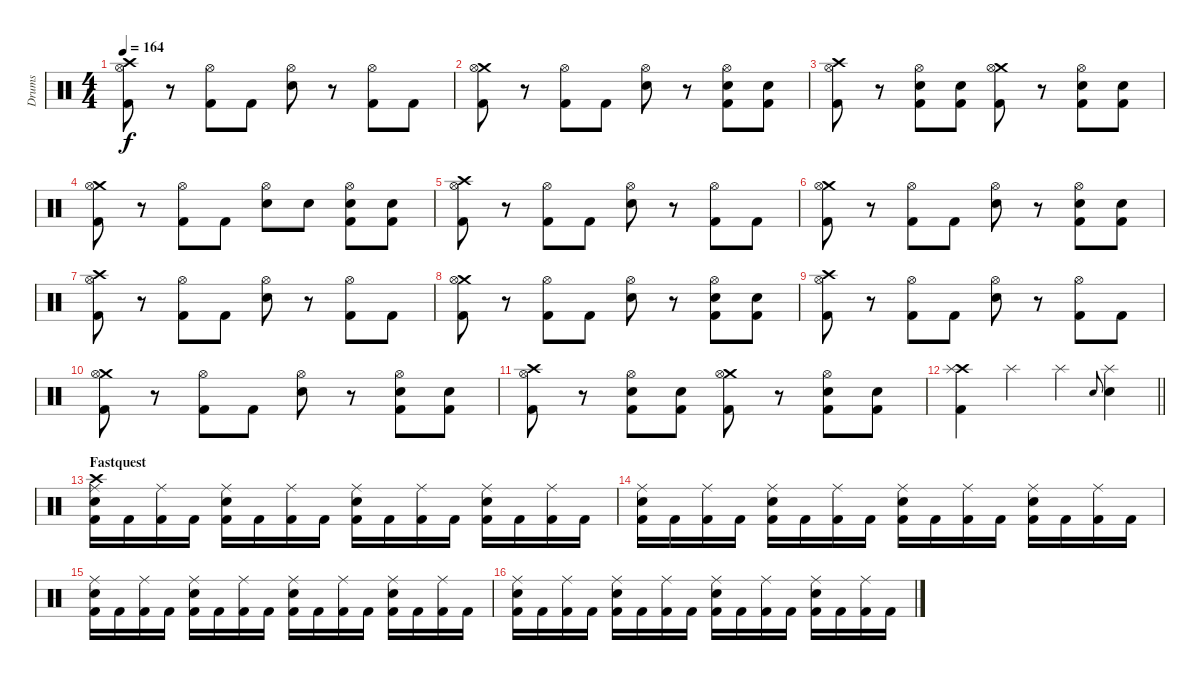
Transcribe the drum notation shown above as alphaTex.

\track ("Drums" "Drums") {instrument percussion}
\staff {score}
\articulation defaults
\ts (4 4)
\tempo 164
\clef neutral
\ks c
("Crash high (hit)" "Hi-Hat (open)" "Kick (hit) 2").8{dy f} r.8 ("Hi-Hat (open)" "Kick (hit) 2").8 "Kick (hit) 2".8 ("Hi-Hat (open)" "Snare (hit) 2").8 r.8 ("Hi-Hat (open)" "Kick (hit) 2").8 "Kick (hit) 2".8 |
("Crash medium (hit)" "Hi-Hat (open)" "Kick (hit) 2").8 r.8 ("Hi-Hat (open)" "Kick (hit) 2").8 "Kick (hit) 2".8 ("Hi-Hat (open)" "Snare (hit) 2").8 r.8 ("Hi-Hat (open)" "Snare (hit) 2" "Kick (hit) 2").8 ("Snare (hit) 2" "Kick (hit) 2").8 |
("Crash high (hit)" "Hi-Hat (open)" "Kick (hit) 2").8 r.8 ("Hi-Hat (open)" "Snare (hit) 2" "Kick (hit) 2").8 ("Snare (hit) 2" "Kick (hit) 2").8 ("Crash medium (hit)" "Hi-Hat (open)" "Kick (hit) 2").8 r.8 ("Hi-Hat (open)" "Snare (hit) 2" "Kick (hit) 2").8 ("Snare (hit) 2" "Kick (hit) 2").8 |
("Crash medium (hit)" "Hi-Hat (open)" "Kick (hit) 2").8 r.8 ("Hi-Hat (open)" "Kick (hit) 2").8 "Kick (hit) 2".8 ("Hi-Hat (open)" "Snare (hit) 2").8 "Snare (hit) 2".8 ("Hi-Hat (open)" "Snare (hit) 2" "Kick (hit) 2").8 ("Snare (hit) 2" "Kick (hit) 2").8 |
("Crash high (hit)" "Hi-Hat (open)" "Kick (hit) 2").8 r.8 ("Hi-Hat (open)" "Kick (hit) 2").8 "Kick (hit) 2".8 ("Hi-Hat (open)" "Snare (hit) 2").8 r.8 ("Hi-Hat (open)" "Kick (hit) 2").8 "Kick (hit) 2".8 |
("Crash medium (hit)" "Hi-Hat (open)" "Kick (hit) 2").8 r.8 ("Hi-Hat (open)" "Kick (hit) 2").8 "Kick (hit) 2".8 ("Hi-Hat (open)" "Snare (hit) 2").8 r.8 ("Hi-Hat (open)" "Snare (hit) 2" "Kick (hit) 2").8 ("Snare (hit) 2" "Kick (hit) 2").8 |
("Crash high (hit)" "Hi-Hat (open)" "Kick (hit) 2").8 r.8 ("Hi-Hat (open)" "Kick (hit) 2").8 "Kick (hit) 2".8 ("Hi-Hat (open)" "Snare (hit) 2").8 r.8 ("Hi-Hat (open)" "Kick (hit) 2").8 "Kick (hit) 2".8 |
("Crash medium (hit)" "Hi-Hat (open)" "Kick (hit) 2").8 r.8 ("Hi-Hat (open)" "Kick (hit) 2").8 "Kick (hit) 2".8 ("Hi-Hat (open)" "Snare (hit) 2").8 r.8 ("Hi-Hat (open)" "Snare (hit) 2" "Kick (hit) 2").8 ("Snare (hit) 2" "Kick (hit) 2").8 |
("Crash high (hit)" "Hi-Hat (open)" "Kick (hit) 2").8 r.8 ("Hi-Hat (open)" "Kick (hit) 2").8 "Kick (hit) 2".8 ("Hi-Hat (open)" "Snare (hit) 2").8 r.8 ("Hi-Hat (open)" "Kick (hit) 2").8 "Kick (hit) 2".8 |
("Crash medium (hit)" "Hi-Hat (open)" "Kick (hit) 2").8 r.8 ("Hi-Hat (open)" "Kick (hit) 2").8 "Kick (hit) 2".8 ("Hi-Hat (open)" "Snare (hit) 2").8 r.8 ("Hi-Hat (open)" "Snare (hit) 2" "Kick (hit) 2").8 ("Snare (hit) 2" "Kick (hit) 2").8 |
("Crash high (hit)" "Hi-Hat (open)" "Kick (hit) 2").8 r.8 ("Hi-Hat (open)" "Snare (hit) 2" "Kick (hit) 2").8 ("Snare (hit) 2" "Kick (hit) 2").8 ("Crash medium (hit)" "Hi-Hat (open)" "Kick (hit) 2").8 r.8 ("Hi-Hat (open)" "Snare (hit) 2" "Kick (hit) 2").8 ("Snare (hit) 2" "Kick (hit) 2").8 |
\barLineRight lightlight
("Crash high (hit)" "Splash (hit)" "Kick (hit) 2").4 "Splash (hit)".4 "Splash (hit)".4 "Snare (hit) 2".8{gr onbeat} ("Splash (hit)" "Snare (hit) 2").4 |
\section ("" "Fastquest")
("Crash high (hit)" "Ride (middle)" "Snare (hit) 2" "Kick (hit) 2").16 "Kick (hit) 2".16 ("Ride (middle)" "Kick (hit) 2").16 "Kick (hit) 2".16 ("Ride (middle)" "Snare (hit) 2" "Kick (hit) 2").16 "Kick (hit) 2".16 ("Ride (middle)" "Kick (hit) 2").16 "Kick (hit) 2".16 ("Ride (middle)" "Snare (hit) 2" "Kick (hit) 2").16 "Kick (hit) 2".16 ("Ride (middle)" "Kick (hit) 2").16 "Kick (hit) 2".16 ("Ride (middle)" "Snare (hit) 2" "Kick (hit) 2").16 "Kick (hit) 2".16 ("Ride (middle)" "Kick (hit) 2").16 "Kick (hit) 2".16 |
("Ride (middle)" "Snare (hit) 2" "Kick (hit) 2").16 "Kick (hit) 2".16 ("Ride (middle)" "Kick (hit) 2").16 "Kick (hit) 2".16 ("Ride (middle)" "Snare (hit) 2" "Kick (hit) 2").16 "Kick (hit) 2".16 ("Ride (middle)" "Kick (hit) 2").16 "Kick (hit) 2".16 ("Ride (middle)" "Snare (hit) 2" "Kick (hit) 2").16 "Kick (hit) 2".16 ("Ride (middle)" "Kick (hit) 2").16 "Kick (hit) 2".16 ("Ride (middle)" "Snare (hit) 2" "Kick (hit) 2").16 "Kick (hit) 2".16 ("Ride (middle)" "Kick (hit) 2").16 "Kick (hit) 2".16 |
("Ride (middle)" "Snare (hit) 2" "Kick (hit) 2").16 "Kick (hit) 2".16 ("Ride (middle)" "Kick (hit) 2").16 "Kick (hit) 2".16 ("Ride (middle)" "Snare (hit) 2" "Kick (hit) 2").16 "Kick (hit) 2".16 ("Ride (middle)" "Kick (hit) 2").16 "Kick (hit) 2".16 ("Ride (middle)" "Snare (hit) 2" "Kick (hit) 2").16 "Kick (hit) 2".16 ("Ride (middle)" "Kick (hit) 2").16 "Kick (hit) 2".16 ("Ride (middle)" "Snare (hit) 2" "Kick (hit) 2").16 "Kick (hit) 2".16 ("Ride (middle)" "Kick (hit) 2").16 "Kick (hit) 2".16 |
("Ride (middle)" "Snare (hit) 2" "Kick (hit) 2").16 "Kick (hit) 2".16 ("Ride (middle)" "Kick (hit) 2").16 "Kick (hit) 2".16 ("Ride (middle)" "Snare (hit) 2" "Kick (hit) 2").16 "Kick (hit) 2".16 ("Ride (middle)" "Kick (hit) 2").16 "Kick (hit) 2".16 ("Ride (middle)" "Snare (hit) 2" "Kick (hit) 2").16 "Kick (hit) 2".16 ("Ride (middle)" "Kick (hit) 2").16 "Kick (hit) 2".16 ("Ride (middle)" "Snare (hit) 2" "Kick (hit) 2").16 "Kick (hit) 2".16 ("Ride (middle)" "Kick (hit) 2").16 "Kick (hit) 2".16
